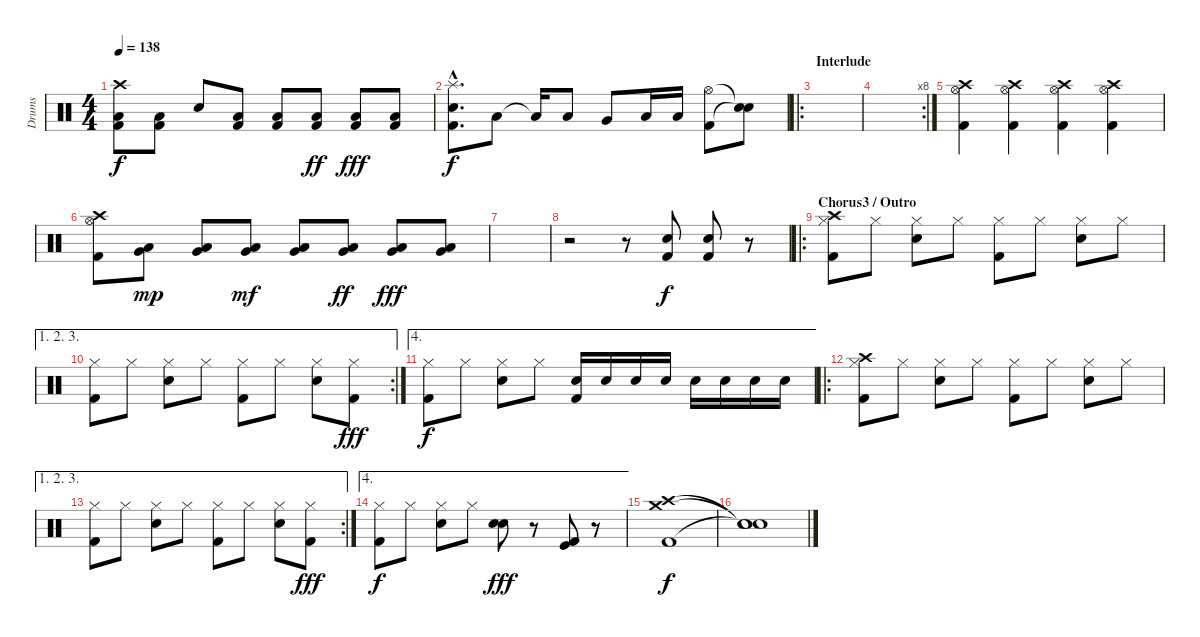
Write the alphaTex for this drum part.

\track ("Drums" "Drums") {instrument percussion}
\staff {score}
\articulation defaults
\ts (4 4)
\tempo 138
\clef neutral
\ks c
("Crash high (hit)" "Low Floor Tom (hit)" "Kick (hit) 2").8{dy f} ("Low Floor Tom (hit)" "Kick (hit) 2").8 "Electric Snare (hit)".8 ("Low Floor Tom (hit)" "Kick (hit) 2").8 ("Low Floor Tom (hit)" "Kick (hit) 2").8 ("Low Floor Tom (hit)" "Kick (hit) 2").8{dy ff} ("Low Floor Tom (hit)" "Kick (hit) 2").8{dy fff} ("Low Floor Tom (hit)" "Kick (hit) 2").8 |
("Splash (hit)"{hac} "Electric Snare (hit)"{hac} "Kick (hit) 2"{hac}).8{d dy f} "Low Tom (hit)".8 "Low Tom (hit)"{t}.16 "Low Tom (hit)".8 "Very Low Tom (hit)".8 "Low Floor Tom (hit)".16 "Low Floor Tom (hit)".16 ("Hi-Hat (open)" "Kick (hit) 2").8 ("Snare (hit)"{t} "Snare (hit)"{t}).8 |
\ro
\section ("" "Interlude")
|
\rc 8
|
("Crash high (hit)" "Hi-Hat (open)" "Kick (hit) 2").4 ("Crash high (hit)" "Hi-Hat (open)" "Kick (hit) 2").4 ("Crash high (hit)" "Hi-Hat (open)" "Kick (hit) 2").4 ("Crash high (hit)" "Hi-Hat (open)" "Kick (hit) 2").4 |
("Crash high (hit)" "Hi-Hat (open)" "Kick (hit) 2").8 ("Very Low Tom (hit)" "Low Floor Tom (hit)").8{dy mp} ("Very Low Tom (hit)" "Low Floor Tom (hit)").8 ("Very Low Tom (hit)" "Low Floor Tom (hit)").8{dy mf} ("Very Low Tom (hit)" "Low Floor Tom (hit)").8 ("Very Low Tom (hit)" "Low Floor Tom (hit)").8{dy ff} ("Very Low Tom (hit)" "Low Floor Tom (hit)").8{dy fff} ("Very Low Tom (hit)" "Low Floor Tom (hit)").8 |
|
r.2 r.8 ("Electric Snare (hit)" "Kick (hit) 2").8{dy f} ("Electric Snare (hit)" "Kick (hit) 2").8 r.8 |
\ro
\section ("" "Chorus3 / Outro")
("Crash high (hit)" "Hi-Hat (closed)" "Kick (hit) 2").8 "Hi-Hat (closed)".8 ("Hi-Hat (closed)" "Electric Snare (hit)").8 "Hi-Hat (closed)".8 ("Hi-Hat (closed)" "Kick (hit) 2").8 "Hi-Hat (closed)".8 ("Hi-Hat (closed)" "Electric Snare (hit)").8 "Hi-Hat (closed)".8 |
\ae (1 2 3)
\rc 2
("Hi-Hat (closed)" "Kick (hit) 2").8 "Hi-Hat (closed)".8 ("Hi-Hat (closed)" "Electric Snare (hit)").8 "Hi-Hat (closed)".8 ("Hi-Hat (closed)" "Kick (hit) 2").8 "Hi-Hat (closed)".8 ("Hi-Hat (closed)" "Electric Snare (hit)").8 ("Hi-Hat (closed)" "Kick (hit) 2").8{dy fff} |
\ae 4
("Hi-Hat (closed)" "Kick (hit) 2").8{dy f} "Hi-Hat (closed)".8 ("Hi-Hat (closed)" "Electric Snare (hit)").8 "Hi-Hat (closed)".8 ("Electric Snare (hit)" "Kick (hit) 2").16 "Electric Snare (hit)".16 "Electric Snare (hit)".16 "Electric Snare (hit)".16 "Electric Snare (hit)".16 "Electric Snare (hit)".16 "Electric Snare (hit)".16 "Electric Snare (hit)".16 |
\ro
("Crash high (hit)" "Hi-Hat (closed)" "Kick (hit) 2").8 "Hi-Hat (closed)".8 ("Hi-Hat (closed)" "Electric Snare (hit)").8 "Hi-Hat (closed)".8 ("Hi-Hat (closed)" "Kick (hit) 2").8 "Hi-Hat (closed)".8 ("Hi-Hat (closed)" "Electric Snare (hit)").8 "Hi-Hat (closed)".8 |
\ae (1 2 3)
\rc 2
("Hi-Hat (closed)" "Kick (hit) 2").8 "Hi-Hat (closed)".8 ("Hi-Hat (closed)" "Electric Snare (hit)").8 "Hi-Hat (closed)".8 ("Hi-Hat (closed)" "Kick (hit) 2").8 "Hi-Hat (closed)".8 ("Hi-Hat (closed)" "Electric Snare (hit)").8 ("Hi-Hat (closed)" "Kick (hit) 2").8{dy fff} |
\ae 4
("Hi-Hat (closed)" "Kick (hit) 2").8{dy f} "Hi-Hat (closed)".8 ("Hi-Hat (closed)" "Electric Snare (hit)").8 "Hi-Hat (closed)".8 ("Snare (hit) 2" "Electric Snare (hit)").8{dy fff} r.8 ("Kick (hit)" "Kick (hit) 2").8 r.8 |
("Crash medium (hit)" "Crash high (hit)" "Kick (hit) 2").1{dy f} |
("Snare (hit)"{t} "Snare (hit)"{t} "Snare (hit)"{t}).1
